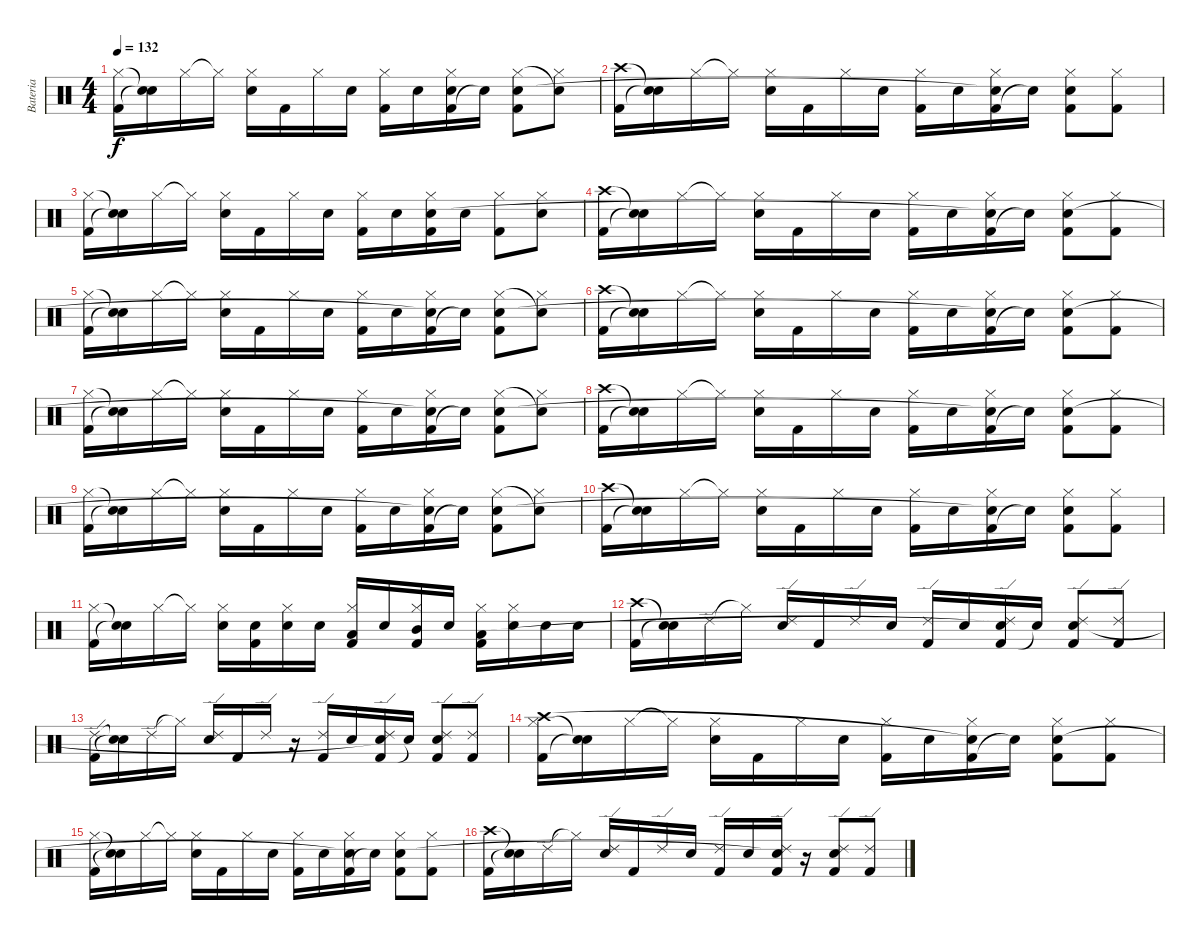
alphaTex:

\track ("Bateria" "Bateria") {instrument percussion}
\staff {score}
\articulation defaults
\ts (4 4)
\tempo 132
\clef neutral
\ks c
("Kick (hit) 2" "Hi-Hat (closed)").16{dy f} ("Snare (hit)"{t} "Electric Snare (hit)"{t}).16 "Hi-Hat (closed)".16 "Hi-Hat (closed)"{t}.16 ("Hi-Hat (closed)" "Electric Snare (hit)").16 "Kick (hit) 2".16 "Hi-Hat (closed)".16 "Electric Snare (hit)".16 ("Kick (hit) 2" "Hi-Hat (closed)").16 "Electric Snare (hit)".16 ("Kick (hit) 2" "Hi-Hat (closed)" "Snare (hit)"{t}).16 "Electric Snare (hit)"{t}.16 ("Kick (hit) 2" "Hi-Hat (closed)" "Electric Snare (hit)").8 ("Hi-Hat (closed)" "Snare (hit)"{t}).8 |
("Kick (hit) 2" "Crash high (hit)").16 ("Snare (hit)"{t} "Electric Snare (hit)"{t}).16 "Hi-Hat (closed)".16 "Hi-Hat (closed)"{t}.16 ("Hi-Hat (closed)" "Electric Snare (hit)").16 "Kick (hit) 2".16 "Hi-Hat (closed)".16 "Electric Snare (hit)".16 ("Kick (hit) 2" "Hi-Hat (closed)").16 "Electric Snare (hit)".16 ("Kick (hit) 2" "Hi-Hat (closed)" "Snare (hit)"{t}).16 "Electric Snare (hit)"{t}.16 ("Kick (hit) 2" "Hi-Hat (closed)" "Electric Snare (hit)").8 ("Kick (hit) 2" "Hi-Hat (closed)").8 |
("Kick (hit) 2" "Hi-Hat (closed)").16 ("Snare (hit)"{t} "Electric Snare (hit)"{t}).16 "Hi-Hat (closed)".16 "Hi-Hat (closed)"{t}.16 ("Hi-Hat (closed)" "Electric Snare (hit)").16 "Kick (hit) 2".16 "Hi-Hat (closed)".16 "Electric Snare (hit)".16 ("Kick (hit) 2" "Hi-Hat (closed)").16 "Electric Snare (hit)".16 ("Kick (hit) 2" "Hi-Hat (closed)" "Electric Snare (hit)").16 "Electric Snare (hit)".16 ("Kick (hit) 2" "Hi-Hat (closed)").8 ("Hi-Hat (closed)" "Electric Snare (hit)").8 |
("Kick (hit) 2" "Crash high (hit)").16 ("Snare (hit)"{t} "Electric Snare (hit)"{t}).16 "Hi-Hat (closed)".16 "Hi-Hat (closed)"{t}.16 ("Hi-Hat (closed)" "Electric Snare (hit)").16 "Kick (hit) 2".16 "Hi-Hat (closed)".16 "Electric Snare (hit)".16 ("Kick (hit) 2" "Hi-Hat (closed)").16 "Electric Snare (hit)".16 ("Kick (hit) 2" "Hi-Hat (closed)" "Snare (hit)"{t}).16 "Electric Snare (hit)"{t}.16 ("Kick (hit) 2" "Hi-Hat (closed)" "Electric Snare (hit)").8 ("Kick (hit) 2" "Hi-Hat (closed)").8 |
("Kick (hit) 2" "Hi-Hat (closed)").16 ("Snare (hit)"{t} "Electric Snare (hit)"{t}).16 "Hi-Hat (closed)".16 "Hi-Hat (closed)"{t}.16 ("Hi-Hat (closed)" "Electric Snare (hit)").16 "Kick (hit) 2".16 "Hi-Hat (closed)".16 "Electric Snare (hit)".16 ("Kick (hit) 2" "Hi-Hat (closed)").16 "Electric Snare (hit)".16 ("Kick (hit) 2" "Hi-Hat (closed)" "Snare (hit)"{t}).16 "Electric Snare (hit)"{t}.16 ("Kick (hit) 2" "Hi-Hat (closed)" "Electric Snare (hit)").8 ("Hi-Hat (closed)" "Snare (hit)"{t}).8 |
("Kick (hit) 2" "Crash high (hit)").16 ("Snare (hit)"{t} "Electric Snare (hit)"{t}).16 "Hi-Hat (closed)".16 "Hi-Hat (closed)"{t}.16 ("Hi-Hat (closed)" "Electric Snare (hit)").16 "Kick (hit) 2".16 "Hi-Hat (closed)".16 "Electric Snare (hit)".16 ("Kick (hit) 2" "Hi-Hat (closed)").16 "Electric Snare (hit)".16 ("Kick (hit) 2" "Hi-Hat (closed)" "Snare (hit)"{t}).16 "Electric Snare (hit)"{t}.16 ("Kick (hit) 2" "Hi-Hat (closed)" "Electric Snare (hit)").8 ("Kick (hit) 2" "Hi-Hat (closed)").8 |
("Kick (hit) 2" "Hi-Hat (closed)").16 ("Snare (hit)"{t} "Electric Snare (hit)"{t}).16 "Hi-Hat (closed)".16 "Hi-Hat (closed)"{t}.16 ("Hi-Hat (closed)" "Electric Snare (hit)").16 "Kick (hit) 2".16 "Hi-Hat (closed)".16 "Electric Snare (hit)".16 ("Kick (hit) 2" "Hi-Hat (closed)").16 "Electric Snare (hit)".16 ("Kick (hit) 2" "Hi-Hat (closed)" "Snare (hit)"{t}).16 "Electric Snare (hit)"{t}.16 ("Kick (hit) 2" "Hi-Hat (closed)" "Electric Snare (hit)").8 ("Hi-Hat (closed)" "Snare (hit)"{t}).8 |
("Kick (hit) 2" "Crash high (hit)").16 ("Snare (hit)"{t} "Electric Snare (hit)"{t}).16 "Hi-Hat (closed)".16 "Hi-Hat (closed)"{t}.16 ("Hi-Hat (closed)" "Electric Snare (hit)").16 "Kick (hit) 2".16 "Hi-Hat (closed)".16 "Electric Snare (hit)".16 ("Kick (hit) 2" "Hi-Hat (closed)").16 "Electric Snare (hit)".16 ("Kick (hit) 2" "Hi-Hat (closed)" "Snare (hit)"{t}).16 "Electric Snare (hit)"{t}.16 ("Kick (hit) 2" "Hi-Hat (closed)" "Electric Snare (hit)").8 ("Kick (hit) 2" "Hi-Hat (closed)").8 |
("Kick (hit) 2" "Hi-Hat (closed)").16 ("Snare (hit)"{t} "Electric Snare (hit)"{t}).16 "Hi-Hat (closed)".16 "Hi-Hat (closed)"{t}.16 ("Hi-Hat (closed)" "Electric Snare (hit)").16 "Kick (hit) 2".16 "Hi-Hat (closed)".16 "Electric Snare (hit)".16 ("Kick (hit) 2" "Hi-Hat (closed)").16 "Electric Snare (hit)".16 ("Kick (hit) 2" "Hi-Hat (closed)" "Snare (hit)"{t}).16 "Electric Snare (hit)"{t}.16 ("Kick (hit) 2" "Hi-Hat (closed)" "Electric Snare (hit)").8 ("Hi-Hat (closed)" "Snare (hit)"{t}).8 |
("Kick (hit) 2" "Crash high (hit)").16 ("Snare (hit)"{t} "Electric Snare (hit)"{t}).16 "Hi-Hat (closed)".16 "Hi-Hat (closed)"{t}.16 ("Hi-Hat (closed)" "Electric Snare (hit)").16 "Kick (hit) 2".16 "Hi-Hat (closed)".16 "Electric Snare (hit)".16 ("Kick (hit) 2" "Hi-Hat (closed)").16 "Electric Snare (hit)".16 ("Kick (hit) 2" "Hi-Hat (closed)" "Snare (hit)"{t}).16 "Electric Snare (hit)"{t}.16 ("Kick (hit) 2" "Hi-Hat (closed)" "Electric Snare (hit)").8 ("Kick (hit) 2" "Hi-Hat (closed)").8 |
("Kick (hit) 2" "Hi-Hat (closed)").16 ("Snare (hit)"{t} "Electric Snare (hit)"{t}).16 "Hi-Hat (closed)".16 "Hi-Hat (closed)"{t}.16 ("Hi-Hat (closed)" "Electric Snare (hit)").16 ("Kick (hit) 2" "Electric Snare (hit)").16 ("Hi-Hat (closed)" "Electric Snare (hit)").16 "Electric Snare (hit)".16 ("Kick (hit) 2" "Hi-Hat (closed)" "Low Tom (hit)").16 "Electric Snare (hit)".16 ("Kick (hit) 2" "Hi-Hat (closed)" "Mid Tom (hit)").16 "Electric Snare (hit)".16 ("Kick (hit) 2" "Hi-Hat (closed)" "Low Tom (hit)").16 ("Hi-Hat (closed)" "Electric Snare (hit)").16 "Electric Snare (hit)".16 "Electric Snare (hit)".16 |
("Kick (hit) 2" "Crash high (hit)").16 ("Snare (hit)"{t} "Electric Snare (hit)"{t}).16 "Ride (edge) 2".16 "Hi-Hat (closed)"{t}.16 ("Ride (edge) 2" "Electric Snare (hit)").16 "Kick (hit) 2".16 "Ride (edge) 2".16 "Electric Snare (hit)".16 ("Kick (hit) 2" "Ride (edge) 2").16 "Electric Snare (hit)".16 ("Kick (hit) 2" "Ride (edge) 2" "Snare (hit)"{t}).16 "Electric Snare (hit)"{t}.16 ("Kick (hit) 2" "Ride (edge) 2" "Electric Snare (hit)").8 ("Kick (hit) 2" "Ride (edge) 2").8 |
("Kick (hit) 2" "Ride (edge) 2").16 ("Snare (hit)"{t} "Electric Snare (hit)"{t}).16 "Ride (edge) 2".16 "Hi-Hat (closed)"{t}.16 ("Ride (edge) 2" "Electric Snare (hit)").16 "Kick (hit) 2".16 "Ride (edge) 2".16 r.16 ("Kick (hit) 2" "Ride (edge) 2").16 "Electric Snare (hit)".16 ("Kick (hit) 2" "Ride (edge) 2" "Snare (hit)"{t}).16 "Electric Snare (hit)"{t}.16 ("Kick (hit) 2" "Ride (edge) 2" "Electric Snare (hit)").8 ("Kick (hit) 2" "Ride (edge) 2").8 |
("Kick (hit) 2" "Hi-Hat (closed)" "Crash high (hit)").16 ("Snare (hit)"{t} "Electric Snare (hit)"{t}).16 "Hi-Hat (closed)".16 "Hi-Hat (closed)"{t}.16 ("Hi-Hat (closed)" "Electric Snare (hit)").16 "Kick (hit) 2".16 "Hi-Hat (closed)".16 "Electric Snare (hit)".16 ("Kick (hit) 2" "Hi-Hat (closed)").16 "Electric Snare (hit)".16 ("Kick (hit) 2" "Hi-Hat (closed)" "Snare (hit)"{t}).16 "Electric Snare (hit)"{t}.16 ("Kick (hit) 2" "Hi-Hat (closed)" "Electric Snare (hit)").8 ("Kick (hit) 2" "Hi-Hat (closed)").8 |
("Kick (hit) 2" "Hi-Hat (closed)").16 ("Snare (hit)"{t} "Electric Snare (hit)"{t}).16 "Hi-Hat (closed)".16 "Hi-Hat (closed)"{t}.16 ("Hi-Hat (closed)" "Electric Snare (hit)").16 "Kick (hit) 2".16 "Hi-Hat (closed)".16 "Electric Snare (hit)".16 ("Kick (hit) 2" "Hi-Hat (closed)").16 "Electric Snare (hit)".16 ("Kick (hit) 2" "Hi-Hat (closed)" "Snare (hit)"{t}).16 "Electric Snare (hit)"{t}.16 ("Kick (hit) 2" "Hi-Hat (closed)" "Electric Snare (hit)").8 ("Kick (hit) 2" "Hi-Hat (closed)").8 |
("Kick (hit) 2" "Crash high (hit)").16 ("Snare (hit)"{t} "Electric Snare (hit)"{t}).16 "Ride (edge) 2".16 "Hi-Hat (closed)"{t}.16 ("Ride (edge) 2" "Electric Snare (hit)").16 "Kick (hit) 2".16 "Ride (edge) 2".16 "Electric Snare (hit)".16 ("Kick (hit) 2" "Ride (edge) 2").16 "Electric Snare (hit)".16 ("Kick (hit) 2" "Ride (edge) 2" "Snare (hit)"{t}).16 r.16 ("Kick (hit) 2" "Ride (edge) 2" "Electric Snare (hit)").8 ("Kick (hit) 2" "Ride (edge) 2").8
